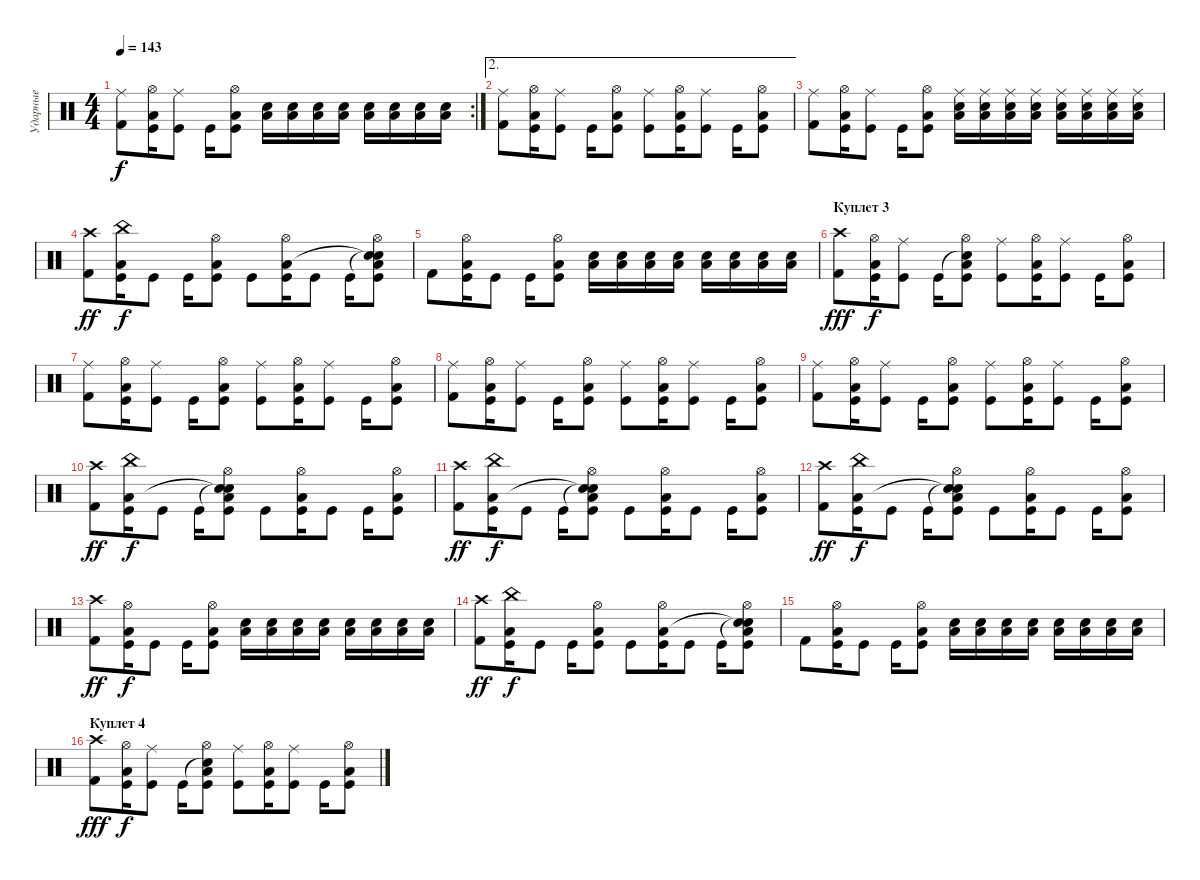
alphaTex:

\track ("Ударные" "Ударные") {instrument percussion}
\staff {score}
\articulation defaults
\rc 2
\ts (4 4)
\tempo 143
\clef neutral
\ks c
("Ride (middle)" "Kick (hit) 2").8{dy f} ("Hi-Hat (open)" "Low Tom (hit)" "Kick (hit)").16 ("Ride (middle)" "Kick (hit)").8 "Kick (hit)".16 ("Hi-Hat (open)" "Low Tom (hit)" "Kick (hit)").8 ("Snare (hit) 2" "Low Tom (hit)").16 ("Snare (hit) 2" "Low Tom (hit)").16 ("Snare (hit) 2" "Low Tom (hit)").16 ("Snare (hit) 2" "Low Tom (hit)").16 ("Snare (hit) 2" "Low Tom (hit)").16 ("Snare (hit) 2" "Low Tom (hit)").16 ("Snare (hit) 2" "Low Tom (hit)").16 ("Snare (hit) 2" "Low Tom (hit)").16 |
\ae 2
("Ride (middle)" "Kick (hit) 2").8 ("Hi-Hat (open)" "Low Tom (hit)" "Kick (hit)").16 ("Ride (middle)" "Kick (hit)").8 "Kick (hit)".16 ("Hi-Hat (open)" "Low Tom (hit)" "Kick (hit)").8 ("Ride (middle)" "Kick (hit)").8 ("Hi-Hat (open)" "Low Tom (hit)" "Kick (hit)").16 ("Ride (middle)" "Kick (hit)").8 "Kick (hit)".16 ("Hi-Hat (open)" "Low Tom (hit)" "Kick (hit)").8 |
("Ride (middle)" "Kick (hit) 2").8 ("Hi-Hat (open)" "Low Tom (hit)" "Kick (hit)").16 ("Ride (middle)" "Kick (hit)").8 "Kick (hit)".16 ("Hi-Hat (open)" "Low Tom (hit)" "Kick (hit)").8 ("Ride (middle)" "Snare (hit) 2" "Low Tom (hit)").16 ("Ride (middle)" "Snare (hit) 2" "Low Tom (hit)").16 ("Ride (middle)" "Snare (hit) 2" "Low Tom (hit)").16 ("Ride (middle)" "Snare (hit) 2" "Low Tom (hit)").16 ("Ride (middle)" "Snare (hit) 2" "Low Tom (hit)").16 ("Ride (middle)" "Snare (hit) 2" "Low Tom (hit)").16 ("Ride (middle)" "Snare (hit) 2" "Low Tom (hit)").16 ("Ride (middle)" "Snare (hit) 2" "Low Tom (hit)").16 |
\section ("" " ")
("Crash high (hit)" "Kick (hit) 2").8{dy ff balance 14} ("China (hit)" "Low Tom (hit)" "Kick (hit)").16{dy f} "Kick (hit)".8{balance 8} "Kick (hit)".16 ("Hi-Hat (open)" "Low Tom (hit)" "Kick (hit)").8 "Kick (hit)".8 ("Hi-Hat (open)" "Low Tom (hit)" "Kick (hit)").16 "Kick (hit)".8 "Kick (hit)".16 ("Snare (hit)"{t} "Snare (hit)"{t} "Hi-Hat (open)" "Low Tom (hit)" "Kick (hit)").8 |
"Kick (hit) 2".8 ("Hi-Hat (open)" "Low Tom (hit)" "Kick (hit)").16 "Kick (hit)".8 "Kick (hit)".16 ("Hi-Hat (open)" "Low Tom (hit)" "Kick (hit)").8 ("Snare (hit) 2" "Low Tom (hit)").16 ("Snare (hit) 2" "Low Tom (hit)").16 ("Snare (hit) 2" "Low Tom (hit)").16 ("Snare (hit) 2" "Low Tom (hit)").16 ("Snare (hit) 2" "Low Tom (hit)").16 ("Snare (hit) 2" "Low Tom (hit)").16 ("Snare (hit) 2" "Low Tom (hit)").16 ("Snare (hit) 2" "Low Tom (hit)").16 |
\section ("" "Куплет 3")
("Crash high (hit)" "Kick (hit) 2").8{dy fff balance 14} ("Hi-Hat (open)" "Low Tom (hit)" "Kick (hit)").16{dy f balance 8} ("Ride (middle)" "Kick (hit)").8 "Kick (hit)".16 ("Snare (hit)"{t} "Hi-Hat (open)" "Low Tom (hit)" "Kick (hit)").8 ("Ride (middle)" "Kick (hit)").8 ("Hi-Hat (open)" "Low Tom (hit)" "Kick (hit)").16 ("Ride (middle)" "Kick (hit)").8 "Kick (hit)".16 ("Hi-Hat (open)" "Low Tom (hit)" "Kick (hit)").8 |
("Ride (middle)" "Kick (hit) 2").8 ("Hi-Hat (open)" "Low Tom (hit)" "Kick (hit)").16 ("Ride (middle)" "Kick (hit)").8 "Kick (hit)".16 ("Hi-Hat (open)" "Low Tom (hit)" "Kick (hit)").8 ("Ride (middle)" "Kick (hit)").8 ("Hi-Hat (open)" "Low Tom (hit)" "Kick (hit)").16 ("Ride (middle)" "Kick (hit)").8 "Kick (hit)".16 ("Hi-Hat (open)" "Low Tom (hit)" "Kick (hit)").8 |
("Ride (middle)" "Kick (hit) 2").8 ("Hi-Hat (open)" "Low Tom (hit)" "Kick (hit)").16 ("Ride (middle)" "Kick (hit)").8 "Kick (hit)".16 ("Hi-Hat (open)" "Low Tom (hit)" "Kick (hit)").8 ("Ride (middle)" "Kick (hit)").8 ("Hi-Hat (open)" "Low Tom (hit)" "Kick (hit)").16 ("Ride (middle)" "Kick (hit)").8 "Kick (hit)".16 ("Hi-Hat (open)" "Low Tom (hit)" "Kick (hit)").8 |
("Ride (middle)" "Kick (hit) 2").8 ("Hi-Hat (open)" "Low Tom (hit)" "Kick (hit)").16 ("Ride (middle)" "Kick (hit)").8 "Kick (hit)".16 ("Hi-Hat (open)" "Low Tom (hit)" "Kick (hit)").8 ("Ride (middle)" "Kick (hit)").8 ("Hi-Hat (open)" "Low Tom (hit)" "Kick (hit)").16 ("Ride (middle)" "Kick (hit)").8 "Kick (hit)".16 ("Hi-Hat (open)" "Low Tom (hit)" "Kick (hit)").8 |
("Crash high (hit)" "Kick (hit) 2").8{dy ff balance 14} ("China (hit)" "Low Tom (hit)" "Kick (hit)").16{dy f} "Kick (hit)".8{balance 8} "Kick (hit)".16 ("Snare (hit)"{t} "Snare (hit)"{t} "Hi-Hat (open)" "Low Tom (hit)" "Kick (hit)").8 "Kick (hit)".8 ("Hi-Hat (open)" "Low Tom (hit)" "Kick (hit)").16 "Kick (hit)".8 "Kick (hit)".16 ("Hi-Hat (open)" "Low Tom (hit)" "Kick (hit)").8 |
("Crash high (hit)" "Kick (hit) 2").8{dy ff balance 14} ("China (hit)" "Low Tom (hit)" "Kick (hit)").16{dy f} "Kick (hit)".8{balance 8} "Kick (hit)".16 ("Snare (hit)"{t} "Snare (hit)"{t} "Hi-Hat (open)" "Low Tom (hit)" "Kick (hit)").8 "Kick (hit)".8 ("Hi-Hat (open)" "Low Tom (hit)" "Kick (hit)").16 "Kick (hit)".8 "Kick (hit)".16 ("Hi-Hat (open)" "Low Tom (hit)" "Kick (hit)").8 |
("Crash high (hit)" "Kick (hit) 2").8{dy ff balance 14} ("China (hit)" "Low Tom (hit)" "Kick (hit)").16{dy f} "Kick (hit)".8{balance 8} "Kick (hit)".16 ("Snare (hit)"{t} "Snare (hit)"{t} "Hi-Hat (open)" "Low Tom (hit)" "Kick (hit)").8 "Kick (hit)".8 ("Hi-Hat (open)" "Low Tom (hit)" "Kick (hit)").16 "Kick (hit)".8 "Kick (hit)".16 ("Hi-Hat (open)" "Low Tom (hit)" "Kick (hit)").8 |
("Crash high (hit)" "Kick (hit) 2").8{dy ff balance 14} ("Hi-Hat (open)" "Low Tom (hit)" "Kick (hit)").16{dy f} "Kick (hit)".8{balance 8} "Kick (hit)".16 ("Hi-Hat (open)" "Low Tom (hit)" "Kick (hit)").8 ("Snare (hit) 2" "Low Tom (hit)").16 ("Snare (hit) 2" "Low Tom (hit)").16 ("Snare (hit) 2" "Low Tom (hit)").16 ("Snare (hit) 2" "Low Tom (hit)").16 ("Snare (hit) 2" "Low Tom (hit)").16 ("Snare (hit) 2" "Low Tom (hit)").16 ("Snare (hit) 2" "Low Tom (hit)").16 ("Snare (hit) 2" "Low Tom (hit)").16 |
\section ("" " ")
("Crash high (hit)" "Kick (hit) 2").8{dy ff balance 14} ("China (hit)" "Low Tom (hit)" "Kick (hit)").16{dy f} "Kick (hit)".8{balance 8} "Kick (hit)".16 ("Hi-Hat (open)" "Low Tom (hit)" "Kick (hit)").8 "Kick (hit)".8 ("Hi-Hat (open)" "Low Tom (hit)" "Kick (hit)").16 "Kick (hit)".8 "Kick (hit)".16 ("Snare (hit)"{t} "Snare (hit)"{t} "Hi-Hat (open)" "Low Tom (hit)" "Kick (hit)").8 |
"Kick (hit) 2".8 ("Hi-Hat (open)" "Low Tom (hit)" "Kick (hit)").16 "Kick (hit)".8 "Kick (hit)".16 ("Hi-Hat (open)" "Low Tom (hit)" "Kick (hit)").8 ("Snare (hit) 2" "Low Tom (hit)").16 ("Snare (hit) 2" "Low Tom (hit)").16 ("Snare (hit) 2" "Low Tom (hit)").16 ("Snare (hit) 2" "Low Tom (hit)").16 ("Snare (hit) 2" "Low Tom (hit)").16 ("Snare (hit) 2" "Low Tom (hit)").16 ("Snare (hit) 2" "Low Tom (hit)").16 ("Snare (hit) 2" "Low Tom (hit)").16 |
\section ("" "Куплет 4")
("Crash high (hit)" "Kick (hit) 2").8{dy fff balance 14} ("Hi-Hat (open)" "Low Tom (hit)" "Kick (hit)").16{dy f balance 8} ("Ride (middle)" "Kick (hit)").8 "Kick (hit)".16 ("Snare (hit)"{t} "Hi-Hat (open)" "Low Tom (hit)" "Kick (hit)").8 ("Ride (middle)" "Kick (hit)").8 ("Hi-Hat (open)" "Low Tom (hit)" "Kick (hit)").16 ("Ride (middle)" "Kick (hit)").8 "Kick (hit)".16 ("Hi-Hat (open)" "Low Tom (hit)" "Kick (hit)").8
